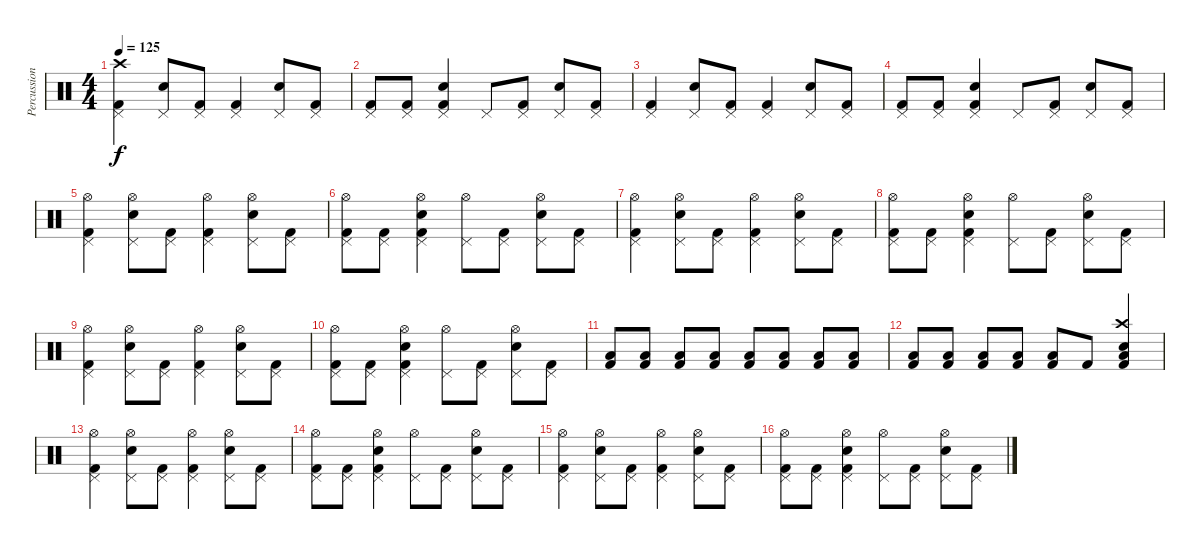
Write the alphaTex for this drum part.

\track ("Percussion" "Percussion") {instrument percussion}
\staff {score}
\articulation defaults
\ts (4 4)
\tempo 125
\clef neutral
\ks c
("Pedal Hi-Hat (hit)" "Kick (hit) 2" "Crash high (hit)").4{dy f} ("Pedal Hi-Hat (hit)" "Snare (hit) 2").8 ("Pedal Hi-Hat (hit)" "Kick (hit) 2").8 ("Pedal Hi-Hat (hit)" "Kick (hit) 2").4 ("Pedal Hi-Hat (hit)" "Snare (hit) 2").8 ("Pedal Hi-Hat (hit)" "Kick (hit) 2").8 |
("Pedal Hi-Hat (hit)" "Kick (hit) 2").8 ("Pedal Hi-Hat (hit)" "Kick (hit) 2").8 ("Pedal Hi-Hat (hit)" "Kick (hit) 2" "Snare (hit) 2").4 "Pedal Hi-Hat (hit)".8 ("Pedal Hi-Hat (hit)" "Kick (hit) 2").8 ("Pedal Hi-Hat (hit)" "Snare (hit) 2").8 ("Pedal Hi-Hat (hit)" "Kick (hit) 2").8 |
("Pedal Hi-Hat (hit)" "Kick (hit) 2").4 ("Pedal Hi-Hat (hit)" "Snare (hit) 2").8 ("Pedal Hi-Hat (hit)" "Kick (hit) 2").8 ("Pedal Hi-Hat (hit)" "Kick (hit) 2").4 ("Pedal Hi-Hat (hit)" "Snare (hit) 2").8 ("Pedal Hi-Hat (hit)" "Kick (hit) 2").8 |
("Pedal Hi-Hat (hit)" "Kick (hit) 2").8 ("Pedal Hi-Hat (hit)" "Kick (hit) 2").8 ("Pedal Hi-Hat (hit)" "Kick (hit) 2" "Snare (hit) 2").4 "Pedal Hi-Hat (hit)".8 ("Pedal Hi-Hat (hit)" "Kick (hit) 2").8 ("Pedal Hi-Hat (hit)" "Snare (hit) 2").8 ("Pedal Hi-Hat (hit)" "Kick (hit) 2").8 |
("Pedal Hi-Hat (hit)" "Kick (hit) 2" "Hi-Hat (open)").4 ("Pedal Hi-Hat (hit)" "Snare (hit) 2" "Hi-Hat (open)").8 ("Pedal Hi-Hat (hit)" "Kick (hit) 2").8 ("Pedal Hi-Hat (hit)" "Kick (hit) 2" "Hi-Hat (open)").4 ("Pedal Hi-Hat (hit)" "Snare (hit) 2" "Hi-Hat (open)").8 ("Pedal Hi-Hat (hit)" "Kick (hit) 2").8 |
("Pedal Hi-Hat (hit)" "Kick (hit) 2" "Hi-Hat (open)").8 ("Pedal Hi-Hat (hit)" "Kick (hit) 2").8 ("Pedal Hi-Hat (hit)" "Kick (hit) 2" "Snare (hit) 2" "Hi-Hat (open)").4 ("Pedal Hi-Hat (hit)" "Hi-Hat (open)").8 ("Pedal Hi-Hat (hit)" "Kick (hit) 2").8 ("Pedal Hi-Hat (hit)" "Snare (hit) 2" "Hi-Hat (open)").8 ("Pedal Hi-Hat (hit)" "Kick (hit) 2").8 |
("Pedal Hi-Hat (hit)" "Kick (hit) 2" "Hi-Hat (open)").4 ("Pedal Hi-Hat (hit)" "Snare (hit) 2" "Hi-Hat (open)").8 ("Pedal Hi-Hat (hit)" "Kick (hit) 2").8 ("Pedal Hi-Hat (hit)" "Kick (hit) 2" "Hi-Hat (open)").4 ("Pedal Hi-Hat (hit)" "Snare (hit) 2" "Hi-Hat (open)").8 ("Pedal Hi-Hat (hit)" "Kick (hit) 2").8 |
("Pedal Hi-Hat (hit)" "Kick (hit) 2" "Hi-Hat (open)").8 ("Pedal Hi-Hat (hit)" "Kick (hit) 2").8 ("Pedal Hi-Hat (hit)" "Kick (hit) 2" "Snare (hit) 2" "Hi-Hat (open)").4 ("Pedal Hi-Hat (hit)" "Hi-Hat (open)").8 ("Pedal Hi-Hat (hit)" "Kick (hit) 2").8 ("Pedal Hi-Hat (hit)" "Snare (hit) 2" "Hi-Hat (open)").8 ("Pedal Hi-Hat (hit)" "Kick (hit) 2").8 |
("Pedal Hi-Hat (hit)" "Kick (hit) 2" "Hi-Hat (open)").4 ("Pedal Hi-Hat (hit)" "Snare (hit) 2" "Hi-Hat (open)").8 ("Pedal Hi-Hat (hit)" "Kick (hit) 2").8 ("Pedal Hi-Hat (hit)" "Kick (hit) 2" "Hi-Hat (open)").4 ("Pedal Hi-Hat (hit)" "Snare (hit) 2" "Hi-Hat (open)").8 ("Pedal Hi-Hat (hit)" "Kick (hit) 2").8 |
("Pedal Hi-Hat (hit)" "Kick (hit) 2" "Hi-Hat (open)").8 ("Pedal Hi-Hat (hit)" "Kick (hit) 2").8 ("Pedal Hi-Hat (hit)" "Kick (hit) 2" "Snare (hit) 2" "Hi-Hat (open)").4 ("Pedal Hi-Hat (hit)" "Hi-Hat (open)").8 ("Pedal Hi-Hat (hit)" "Kick (hit) 2").8 ("Pedal Hi-Hat (hit)" "Snare (hit) 2" "Hi-Hat (open)").8 ("Pedal Hi-Hat (hit)" "Kick (hit) 2").8 |
("Kick (hit) 2" "Low Tom (hit)").8 ("Kick (hit) 2" "Low Tom (hit)").8 ("Kick (hit) 2" "Low Tom (hit)").8 ("Kick (hit) 2" "Low Tom (hit)").8 ("Kick (hit) 2" "Low Tom (hit)").8 ("Kick (hit) 2" "Low Tom (hit)").8 ("Kick (hit) 2" "Low Tom (hit)").8 ("Kick (hit) 2" "Low Tom (hit)").8 |
("Kick (hit) 2" "Low Tom (hit)").8 ("Kick (hit) 2" "Low Tom (hit)").8 ("Kick (hit) 2" "Low Tom (hit)").8 ("Kick (hit) 2" "Low Tom (hit)").8 ("Kick (hit) 2" "Low Tom (hit)").8 "Kick (hit) 2".8 ("Crash high (hit)" "Kick (hit) 2" "Snare (hit) 2" "Low Tom (hit)").4 |
("Pedal Hi-Hat (hit)" "Kick (hit) 2" "Hi-Hat (open)").4 ("Pedal Hi-Hat (hit)" "Snare (hit) 2" "Hi-Hat (open)").8 ("Pedal Hi-Hat (hit)" "Kick (hit) 2").8 ("Pedal Hi-Hat (hit)" "Kick (hit) 2" "Hi-Hat (open)").4 ("Pedal Hi-Hat (hit)" "Snare (hit) 2" "Hi-Hat (open)").8 ("Pedal Hi-Hat (hit)" "Kick (hit) 2").8 |
("Pedal Hi-Hat (hit)" "Kick (hit) 2" "Hi-Hat (open)").8 ("Pedal Hi-Hat (hit)" "Kick (hit) 2").8 ("Pedal Hi-Hat (hit)" "Kick (hit) 2" "Snare (hit) 2" "Hi-Hat (open)").4 ("Pedal Hi-Hat (hit)" "Hi-Hat (open)").8 ("Pedal Hi-Hat (hit)" "Kick (hit) 2").8 ("Pedal Hi-Hat (hit)" "Snare (hit) 2" "Hi-Hat (open)").8 ("Pedal Hi-Hat (hit)" "Kick (hit) 2").8 |
("Pedal Hi-Hat (hit)" "Kick (hit) 2" "Hi-Hat (open)").4 ("Pedal Hi-Hat (hit)" "Snare (hit) 2" "Hi-Hat (open)").8 ("Pedal Hi-Hat (hit)" "Kick (hit) 2").8 ("Pedal Hi-Hat (hit)" "Kick (hit) 2" "Hi-Hat (open)").4 ("Pedal Hi-Hat (hit)" "Snare (hit) 2" "Hi-Hat (open)").8 ("Pedal Hi-Hat (hit)" "Kick (hit) 2").8 |
("Pedal Hi-Hat (hit)" "Kick (hit) 2" "Hi-Hat (open)").8 ("Pedal Hi-Hat (hit)" "Kick (hit) 2").8 ("Pedal Hi-Hat (hit)" "Kick (hit) 2" "Snare (hit) 2" "Hi-Hat (open)").4 ("Pedal Hi-Hat (hit)" "Hi-Hat (open)").8 ("Pedal Hi-Hat (hit)" "Kick (hit) 2").8 ("Pedal Hi-Hat (hit)" "Snare (hit) 2" "Hi-Hat (open)").8 ("Pedal Hi-Hat (hit)" "Kick (hit) 2").8
